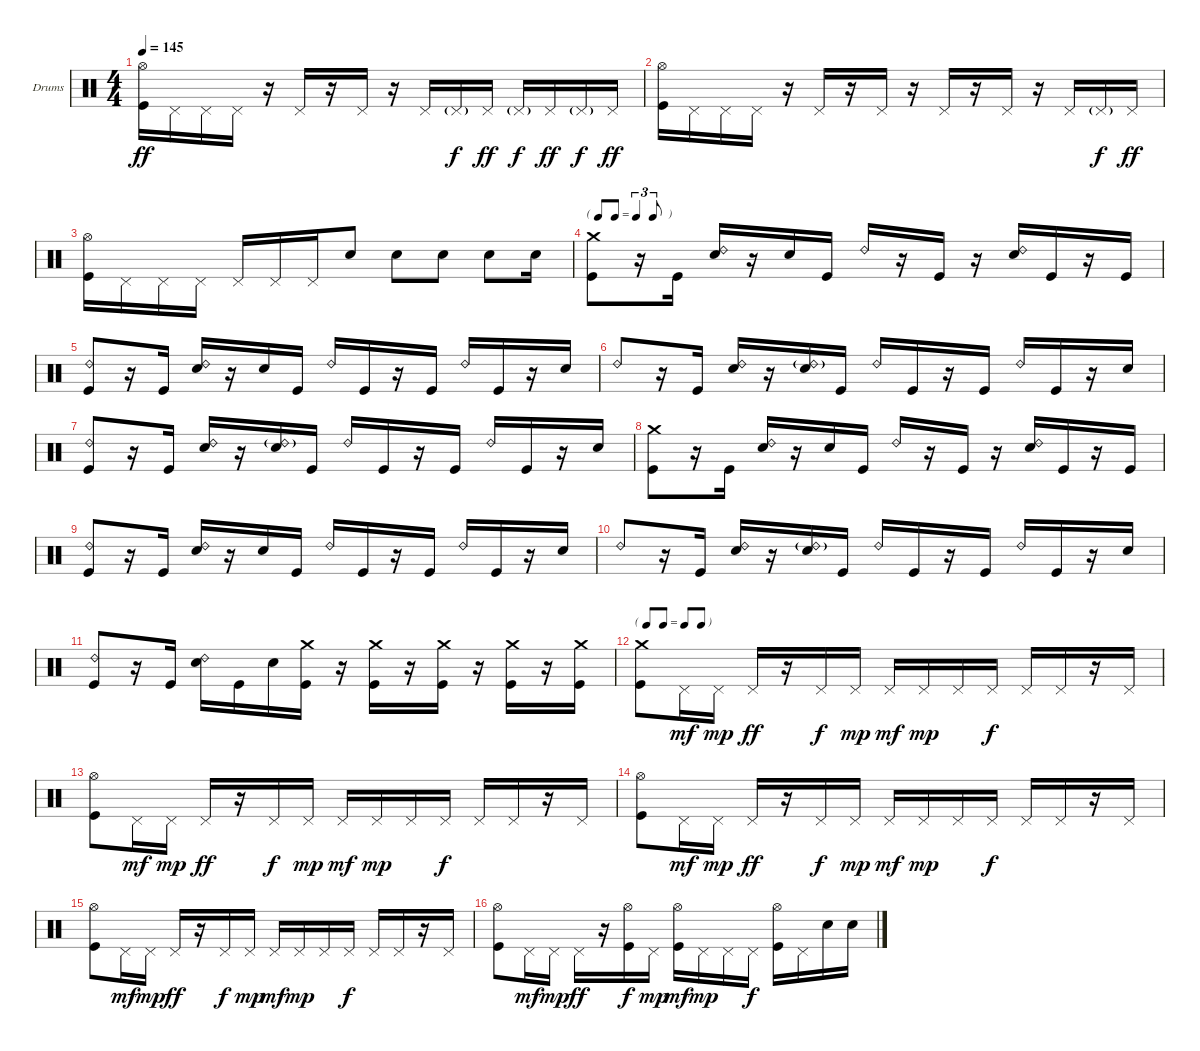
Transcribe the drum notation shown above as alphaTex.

\bracketExtendMode groupsimilarinstruments
\firstSystemTrackNameOrientation horizontal
\otherSystemsTrackNameOrientation horizontal
\track ("Drumkit" "Drums") {instrument percussion}
\staff {score}
\articulation defaults
\ts (4 4)
\tempo 145
\clef neutral
\ks c
("Hi-Hat (open)" "Kick (hit)").16{dy ff} "Pedal Hi-Hat (hit)".16 "Pedal Hi-Hat (hit)".16 "Pedal Hi-Hat (hit)".16 r.16 "Pedal Hi-Hat (hit)".16 r.16 "Pedal Hi-Hat (hit)".16 r.16 "Pedal Hi-Hat (hit)".16 "Pedal Hi-Hat (hit)"{g}.16{dy f} "Pedal Hi-Hat (hit)".16{dy ff} "Pedal Hi-Hat (hit)"{g}.16{dy f} "Pedal Hi-Hat (hit)".16{dy ff} "Pedal Hi-Hat (hit)"{g}.16{dy f} "Pedal Hi-Hat (hit)".16{dy ff} |
("Hi-Hat (open)" "Kick (hit)").16 "Pedal Hi-Hat (hit)".16 "Pedal Hi-Hat (hit)".16 "Pedal Hi-Hat (hit)".16 r.16 "Pedal Hi-Hat (hit)".16 r.16 "Pedal Hi-Hat (hit)".16 r.16 "Pedal Hi-Hat (hit)".16 r.16 "Pedal Hi-Hat (hit)".16 r.16 "Pedal Hi-Hat (hit)".16 "Pedal Hi-Hat (hit)"{g}.16{dy f} "Pedal Hi-Hat (hit)".16{dy ff} |
("Hi-Hat (open)" "Kick (hit)").16 "Pedal Hi-Hat (hit)".16 "Pedal Hi-Hat (hit)".16 "Pedal Hi-Hat (hit)".16 "Pedal Hi-Hat (hit)".16 "Pedal Hi-Hat (hit)".16 "Pedal Hi-Hat (hit)".16 "Snare (hit) 2".8 "Snare (hit) 2".8 "Snare (hit) 2".8 "Snare (hit) 2".8 "Snare (hit) 2".16 |
\tf triplet8th
("Crash medium (hit)" "Kick (hit)").8 r.16 "Kick (hit)".16 ("Ride (bell) 2" "Snare (hit) 2").16 r.16 "Snare (hit) 2".16 "Kick (hit)".16 "Ride (bell) 2".16 r.16 "Kick (hit)".16 r.16 ("Ride (bell) 2" "Snare (hit) 2").16 "Kick (hit)".16 r.16 "Kick (hit)".16 |
("Ride (bell) 2" "Kick (hit)").8 r.16 "Kick (hit)".16 ("Ride (bell) 2" "Snare (hit) 2").16 r.16 "Snare (hit) 2".16 "Kick (hit)".16 "Ride (bell) 2".16 "Kick (hit)".16 r.16 "Kick (hit)".16 "Ride (bell) 2".16 "Kick (hit)".16 r.16 "Snare (hit) 2".16 |
"Ride (bell) 2".8 r.16 "Kick (hit)".16 ("Ride (bell) 2" "Snare (hit) 2").16 r.16 ("Ride (bell) 2"{g} "Snare (hit) 2").16 "Kick (hit)".16 "Ride (bell) 2".16 "Kick (hit)".16 r.16 "Kick (hit)".16 "Ride (bell) 2".16 "Kick (hit)".16 r.16 "Snare (hit) 2".16 |
("Ride (bell) 2" "Kick (hit)").8 r.16 "Kick (hit)".16 ("Ride (bell) 2" "Snare (hit) 2").16 r.16 ("Ride (bell) 2"{g} "Snare (hit) 2").16 "Kick (hit)".16 "Ride (bell) 2".16 "Kick (hit)".16 r.16 "Kick (hit)".16 "Ride (bell) 2".16 "Kick (hit)".16 r.16 "Snare (hit) 2".16 |
("Crash medium (hit)" "Kick (hit)").8 r.16 "Kick (hit)".16 ("Ride (bell) 2" "Snare (hit) 2").16 r.16 "Snare (hit) 2".16 "Kick (hit)".16 "Ride (bell) 2".16 r.16 "Kick (hit)".16 r.16 ("Ride (bell) 2" "Snare (hit) 2").16 "Kick (hit)".16 r.16 "Kick (hit)".16 |
("Ride (bell) 2" "Kick (hit)").8 r.16 "Kick (hit)".16 ("Ride (bell) 2" "Snare (hit) 2").16 r.16 "Snare (hit) 2".16 "Kick (hit)".16 "Ride (bell) 2".16 "Kick (hit)".16 r.16 "Kick (hit)".16 "Ride (bell) 2".16 "Kick (hit)".16 r.16 "Snare (hit) 2".16 |
"Ride (bell) 2".8 r.16 "Kick (hit)".16 ("Ride (bell) 2" "Snare (hit) 2").16 r.16 ("Ride (bell) 2"{g} "Snare (hit) 2").16 "Kick (hit)".16 "Ride (bell) 2".16 "Kick (hit)".16 r.16 "Kick (hit)".16 "Ride (bell) 2".16 "Kick (hit)".16 r.16 "Snare (hit) 2".16 |
("Ride (bell) 2" "Kick (hit)").8 r.16 "Kick (hit)".16 ("Ride (bell) 2" "Snare (hit) 2").16 "Kick (hit)".16 "Snare (hit) 2".16 ("Crash medium (hit)" "Kick (hit)").16 r.16 ("Crash medium (hit)" "Kick (hit)").16 r.16 ("Crash medium (hit)" "Kick (hit)").16 r.16 ("Crash medium (hit)" "Kick (hit)").16 r.16 ("Crash medium (hit)" "Kick (hit)").16 |
\tf none
("Crash medium (hit)" "Kick (hit)").8 "Pedal Hi-Hat (hit)".16{dy mf} "Pedal Hi-Hat (hit)".16{dy mp} "Pedal Hi-Hat (hit)".16{dy ff} r.16 "Pedal Hi-Hat (hit)".16{dy f} "Pedal Hi-Hat (hit)".16{dy mp} "Pedal Hi-Hat (hit)".16{dy mf} "Pedal Hi-Hat (hit)".16{dy mp} "Pedal Hi-Hat (hit)".16 "Pedal Hi-Hat (hit)".16{dy f} "Pedal Hi-Hat (hit)".16 "Pedal Hi-Hat (hit)".16 r.16 "Pedal Hi-Hat (hit)".16 |
("Hi-Hat (open)" "Kick (hit)").8 "Pedal Hi-Hat (hit)".16{dy mf} "Pedal Hi-Hat (hit)".16{dy mp} "Pedal Hi-Hat (hit)".16{dy ff} r.16 "Pedal Hi-Hat (hit)".16{dy f} "Pedal Hi-Hat (hit)".16{dy mp} "Pedal Hi-Hat (hit)".16{dy mf} "Pedal Hi-Hat (hit)".16{dy mp} "Pedal Hi-Hat (hit)".16 "Pedal Hi-Hat (hit)".16{dy f} "Pedal Hi-Hat (hit)".16 "Pedal Hi-Hat (hit)".16 r.16 "Pedal Hi-Hat (hit)".16 |
("Hi-Hat (open)" "Kick (hit)").8 "Pedal Hi-Hat (hit)".16{dy mf} "Pedal Hi-Hat (hit)".16{dy mp} "Pedal Hi-Hat (hit)".16{dy ff} r.16 "Pedal Hi-Hat (hit)".16{dy f} "Pedal Hi-Hat (hit)".16{dy mp} "Pedal Hi-Hat (hit)".16{dy mf} "Pedal Hi-Hat (hit)".16{dy mp} "Pedal Hi-Hat (hit)".16 "Pedal Hi-Hat (hit)".16{dy f} "Pedal Hi-Hat (hit)".16 "Pedal Hi-Hat (hit)".16 r.16 "Pedal Hi-Hat (hit)".16 |
("Hi-Hat (open)" "Kick (hit)").8 "Pedal Hi-Hat (hit)".16{dy mf} "Pedal Hi-Hat (hit)".16{dy mp} "Pedal Hi-Hat (hit)".16{dy ff} r.16 "Pedal Hi-Hat (hit)".16{dy f} "Pedal Hi-Hat (hit)".16{dy mp} "Pedal Hi-Hat (hit)".16{dy mf} "Pedal Hi-Hat (hit)".16{dy mp} "Pedal Hi-Hat (hit)".16 "Pedal Hi-Hat (hit)".16{dy f} "Pedal Hi-Hat (hit)".16 "Pedal Hi-Hat (hit)".16 r.16 "Pedal Hi-Hat (hit)".16 |
("Hi-Hat (open)" "Kick (hit)").8 "Pedal Hi-Hat (hit)".16{dy mf} "Pedal Hi-Hat (hit)".16{dy mp} "Pedal Hi-Hat (hit)".16{dy ff} r.16 ("Hi-Hat (open)" "Kick (hit)").16{dy f} "Pedal Hi-Hat (hit)".16{dy mp} ("Hi-Hat (open)" "Kick (hit)").16{dy mf} "Pedal Hi-Hat (hit)".16{dy mp} "Pedal Hi-Hat (hit)".16 "Pedal Hi-Hat (hit)".16{dy f} ("Hi-Hat (open)" "Kick (hit)").16 "Pedal Hi-Hat (hit)".16 "Snare (hit) 2".16 "Snare (hit) 2".16
